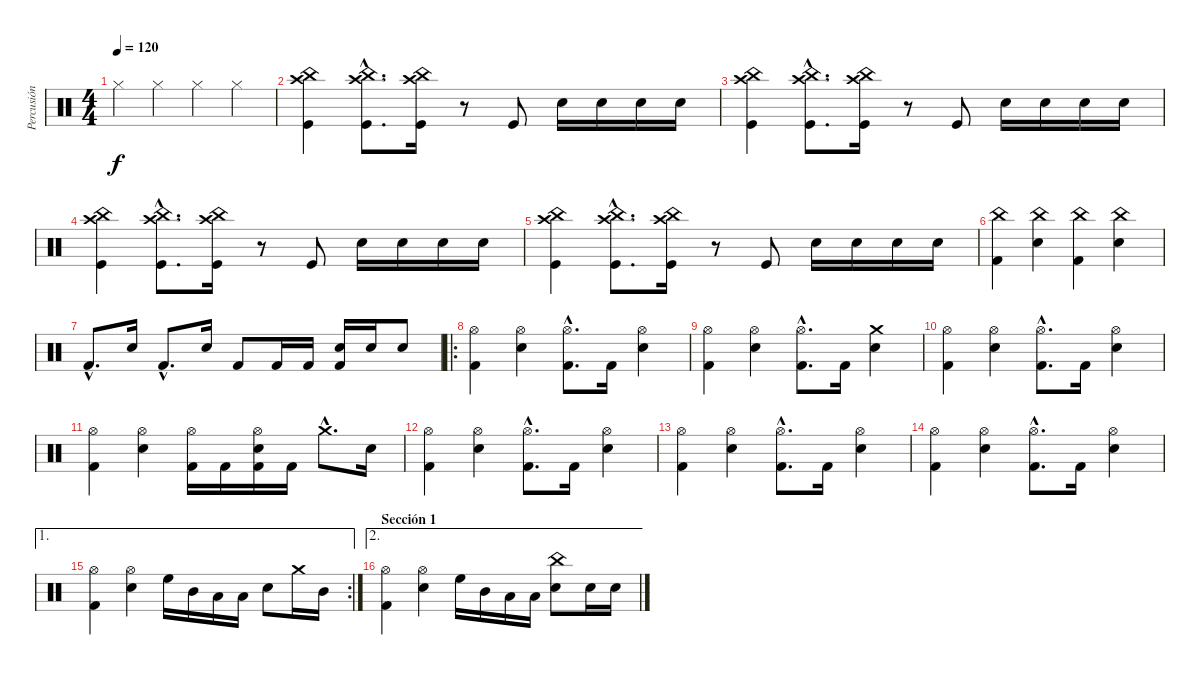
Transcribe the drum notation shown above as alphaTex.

\track ("Percusión" "Percusión") {instrument percussion}
\staff {score}
\articulation defaults
\ts (4 4)
\tempo 120
\clef neutral
\ks c "Hi-Hat (closed)".4{dy f} "Hi-Hat (closed)".4 "Hi-Hat (closed)".4 "Hi-Hat (closed)".4
|
("China (hit)" "Crash high (hit)" "Kick (hit)").4 ("China (hit)"{hac} "Crash high (hit)"{hac} "Kick (hit)"{hac}).8{d} ("China (hit)" "Crash high (hit)" "Kick (hit)").16 r.8 "Kick (hit)".8 "Electric Snare (hit)".16 "Electric Snare (hit)".16 "Electric Snare (hit)".16 "Electric Snare (hit)".16 |
("China (hit)" "Crash high (hit)" "Kick (hit)").4 ("China (hit)"{hac} "Crash high (hit)"{hac} "Kick (hit)"{hac}).8{d} ("China (hit)" "Crash high (hit)" "Kick (hit)").16 r.8 "Kick (hit)".8 "Electric Snare (hit)".16 "Electric Snare (hit)".16 "Electric Snare (hit)".16 "Electric Snare (hit)".16 |
("China (hit)" "Crash high (hit)" "Kick (hit)").4 ("China (hit)"{hac} "Crash high (hit)"{hac} "Kick (hit)"{hac}).8{d} ("China (hit)" "Crash high (hit)" "Kick (hit)").16 r.8 "Kick (hit)".8 "Electric Snare (hit)".16 "Electric Snare (hit)".16 "Electric Snare (hit)".16 "Electric Snare (hit)".16 |
("China (hit)" "Crash high (hit)" "Kick (hit)").4 ("China (hit)"{hac} "Crash high (hit)"{hac} "Kick (hit)"{hac}).8{d} ("China (hit)" "Crash high (hit)" "Kick (hit)").16 r.8 "Kick (hit)".8 "Electric Snare (hit)".16 "Electric Snare (hit)".16 "Electric Snare (hit)".16 "Electric Snare (hit)".16 |
("China (hit)" "Kick (hit) 2").4 ("China (hit)" "Electric Snare (hit)").4 ("China (hit)" "Kick (hit) 2").4 ("China (hit)" "Electric Snare (hit)").4 |
"Kick (hit) 2"{hac}.8{d} "Electric Snare (hit)".16 "Kick (hit) 2"{hac}.8{d} "Electric Snare (hit)".16 "Kick (hit) 2".8 "Kick (hit) 2".16 "Kick (hit) 2".16 ("Electric Snare (hit)" "Kick (hit) 2").16 "Electric Snare (hit)".16 "Electric Snare (hit)".8 |
\ro
("Hi-Hat (open)" "Kick (hit) 2").4 ("Hi-Hat (open)" "Electric Snare (hit)").4 ("Hi-Hat (open)"{hac} "Kick (hit) 2"{hac}).8{d} "Kick (hit) 2".16 ("Hi-Hat (open)" "Electric Snare (hit)").4 |
("Hi-Hat (open)" "Kick (hit) 2").4 ("Hi-Hat (open)" "Electric Snare (hit)").4 ("Hi-Hat (open)"{hac} "Kick (hit) 2"{hac}).8{d} "Kick (hit) 2".16 ("Crash medium (hit)" "Electric Snare (hit)").4 |
("Hi-Hat (open)" "Kick (hit) 2").4 ("Hi-Hat (open)" "Electric Snare (hit)").4 ("Hi-Hat (open)"{hac} "Kick (hit) 2"{hac}).8{d} "Kick (hit) 2".16 ("Hi-Hat (open)" "Electric Snare (hit)").4 |
("Hi-Hat (open)" "Kick (hit) 2").4 ("Hi-Hat (open)" "Electric Snare (hit)").4 ("Hi-Hat (open)" "Kick (hit) 2").16 "Kick (hit) 2".16 ("Hi-Hat (open)" "Electric Snare (hit)" "Kick (hit) 2").16 "Kick (hit) 2".16 "Crash medium (hit)"{hac}.8{d} "Electric Snare (hit)".16 |
("Hi-Hat (open)" "Kick (hit) 2").4 ("Hi-Hat (open)" "Electric Snare (hit)").4 ("Hi-Hat (open)"{hac} "Kick (hit) 2"{hac}).8{d} "Kick (hit) 2".16 ("Hi-Hat (open)" "Electric Snare (hit)").4 |
("Hi-Hat (open)" "Kick (hit) 2").4 ("Hi-Hat (open)" "Electric Snare (hit)").4 ("Hi-Hat (open)"{hac} "Kick (hit) 2"{hac}).8{d} "Kick (hit) 2".16 ("Hi-Hat (open)" "Electric Snare (hit)").4 |
("Hi-Hat (open)" "Kick (hit) 2").4 ("Hi-Hat (open)" "Electric Snare (hit)").4 ("Hi-Hat (open)"{hac} "Kick (hit) 2"{hac}).8{d} "Kick (hit) 2".16 ("Hi-Hat (open)" "Electric Snare (hit)").4 |
\ae 1
\rc 2
("Hi-Hat (open)" "Kick (hit) 2").4 ("Hi-Hat (open)" "Electric Snare (hit)").4 "High Floor Tom (hit)".16 "Mid Tom (hit)".16 "Low Tom (hit)".16 "Low Floor Tom (hit)".16 "Electric Snare (hit)".8 "Crash medium (hit)".16 "Mid Tom (hit)".16 |
\ae 2
\section ("" "Sección 1")
("Hi-Hat (open)" "Kick (hit) 2").4 ("Hi-Hat (open)" "Electric Snare (hit)").4 "High Floor Tom (hit)".16 "Mid Tom (hit)".16 "Low Tom (hit)".16 "Low Floor Tom (hit)".16 ("China (hit)" "Electric Snare (hit)").8 "Electric Snare (hit)".16 "Electric Snare (hit)".16
